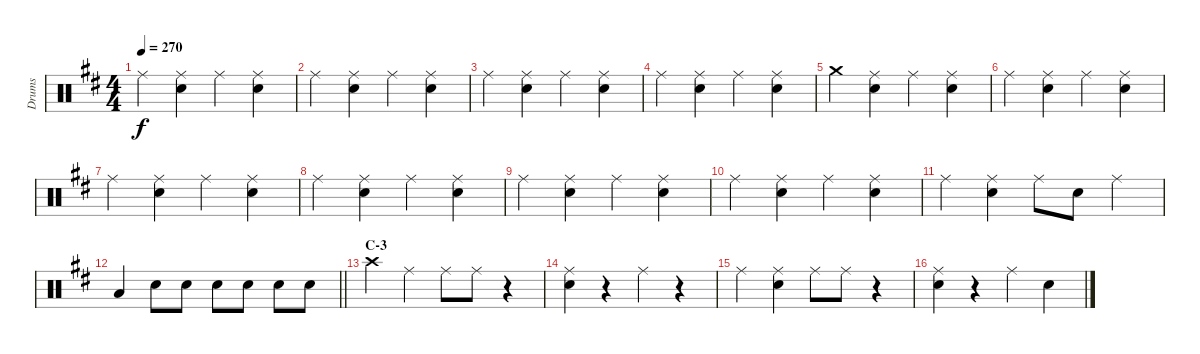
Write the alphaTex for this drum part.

\track ("Drums" "Drums") {instrument percussion}
\staff {score}
\articulation defaults
\ts (4 4)
\tempo 270
\clef neutral
\ks d "Ride (middle)".4{dy f}
("Ride (middle)" "Snare (hit) 2").4 "Ride (middle)".4 ("Ride (middle)" "Snare (hit) 2").4 |
"Ride (middle)".4 ("Ride (middle)" "Snare (hit) 2").4 "Ride (middle)".4 ("Ride (middle)" "Snare (hit) 2").4 |
"Ride (middle)".4 ("Ride (middle)" "Snare (hit) 2").4 "Ride (middle)".4 ("Ride (middle)" "Snare (hit) 2").4 |
"Ride (middle)".4 ("Ride (middle)" "Snare (hit) 2").4 "Ride (middle)".4 ("Ride (middle)" "Snare (hit) 2").4 |
"Crash medium (hit)".4 ("Ride (middle)" "Snare (hit) 2").4 "Ride (middle)".4 ("Ride (middle)" "Snare (hit) 2").4 |
"Ride (middle)".4 ("Ride (middle)" "Snare (hit) 2").4 "Ride (middle)".4 ("Ride (middle)" "Snare (hit) 2").4 |
"Ride (middle)".4 ("Ride (middle)" "Snare (hit) 2").4 "Ride (middle)".4 ("Ride (middle)" "Snare (hit) 2").4 |
"Ride (middle)".4 ("Ride (middle)" "Snare (hit) 2").4 "Ride (middle)".4 ("Ride (middle)" "Snare (hit) 2").4 |
"Ride (middle)".4 ("Ride (middle)" "Snare (hit) 2").4 "Ride (middle)".4 ("Ride (middle)" "Snare (hit) 2").4 |
"Ride (middle)".4 ("Ride (middle)" "Snare (hit) 2").4 "Ride (middle)".4 ("Ride (middle)" "Snare (hit) 2").4 |
"Ride (middle)".4 ("Ride (middle)" "Snare (hit) 2").4 "Ride (middle)".8 "Snare (hit) 2".8 "Ride (middle)".4 |
\barLineRight lightlight "Low Floor Tom (hit)".4 "Snare (hit) 2".8 "Snare (hit) 2".8 "Snare (hit) 2".8 "Snare (hit) 2".8 "Snare (hit) 2".8 "Snare (hit) 2".8
|
\section ("" "C-3")
"Crash high (hit)".4 "Ride (middle)".4 "Ride (middle)".8 "Ride (middle)".8 r.4 |
("Ride (middle)" "Snare (hit) 2").4 r.4 "Ride (middle)".4 r.4 |
"Ride (middle)".4 ("Ride (middle)" "Snare (hit) 2").4 "Ride (middle)".8 "Ride (middle)".8 r.4 |
("Ride (middle)" "Snare (hit) 2").4 r.4 "Ride (middle)".4 "Snare (hit) 2".4
